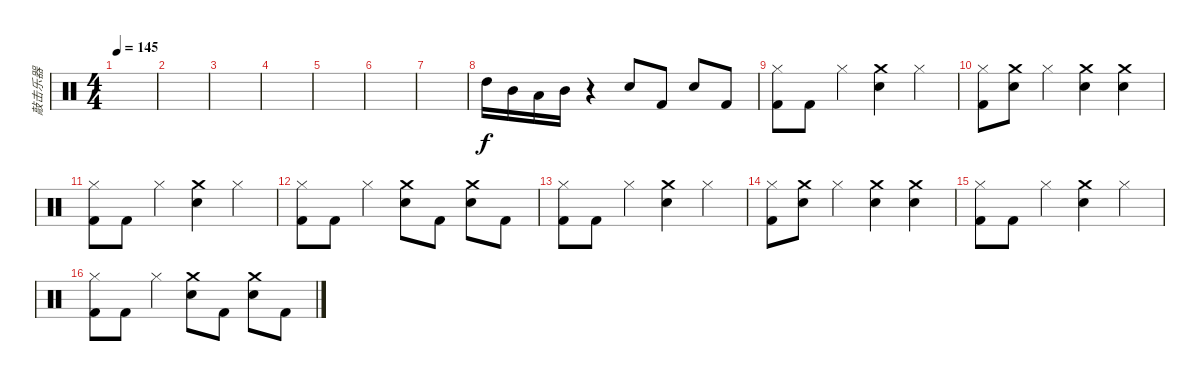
\track ("敲击乐器" "敲击乐器") {instrument percussion}
\staff {score}
\articulation defaults
\ts (4 4)
\tempo 145
\clef neutral
\ks c
|
|
|
|
|
|
|
"High Tom (hit)".16 "Mid Tom (hit)".16 "Low Tom (hit)".16 "Mid Tom (hit)".16 r.4 "Electric Snare (hit)".8 "Kick (hit) 2".8 "Electric Snare (hit)".8 "Kick (hit) 2".8 |
("Hi-Hat (closed)" "Kick (hit) 2").8 "Kick (hit) 2".8 "Hi-Hat (closed)".4 ("Crash medium (hit)" "Electric Snare (hit)").4 "Hi-Hat (closed)".4 |
("Hi-Hat (closed)" "Kick (hit) 2").8 ("Crash medium (hit)" "Electric Snare (hit)").8 "Hi-Hat (closed)".4 ("Crash medium (hit)" "Electric Snare (hit)").4 ("Crash medium (hit)" "Electric Snare (hit)").4 |
("Hi-Hat (closed)" "Kick (hit) 2").8 "Kick (hit) 2".8 "Hi-Hat (closed)".4 ("Crash medium (hit)" "Electric Snare (hit)").4 "Hi-Hat (closed)".4 |
("Hi-Hat (closed)" "Kick (hit) 2").8 "Kick (hit) 2".8 "Hi-Hat (closed)".4 ("Crash medium (hit)" "Electric Snare (hit)").8 "Kick (hit) 2".8 ("Crash medium (hit)" "Electric Snare (hit)").8 "Kick (hit) 2".8 |
("Hi-Hat (closed)" "Kick (hit) 2").8 "Kick (hit) 2".8 "Hi-Hat (closed)".4 ("Crash medium (hit)" "Electric Snare (hit)").4 "Hi-Hat (closed)".4 |
("Hi-Hat (closed)" "Kick (hit) 2").8 ("Crash medium (hit)" "Electric Snare (hit)").8 "Hi-Hat (closed)".4 ("Crash medium (hit)" "Electric Snare (hit)").4 ("Crash medium (hit)" "Electric Snare (hit)").4 |
("Hi-Hat (closed)" "Kick (hit) 2").8 "Kick (hit) 2".8 "Hi-Hat (closed)".4 ("Crash medium (hit)" "Electric Snare (hit)").4 "Hi-Hat (closed)".4 |
("Hi-Hat (closed)" "Kick (hit) 2").8 "Kick (hit) 2".8 "Hi-Hat (closed)".4 ("Crash medium (hit)" "Electric Snare (hit)").8 "Kick (hit) 2".8 ("Crash medium (hit)" "Electric Snare (hit)").8 "Kick (hit) 2".8
